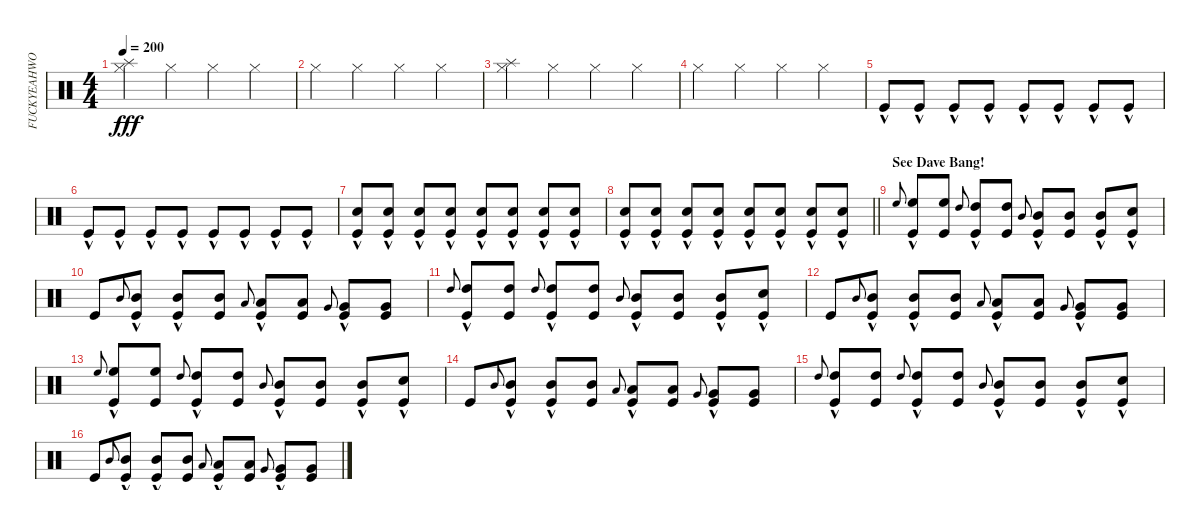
\track ("FUCKYEAHWOOTDAVEMACKINTOSH!(Percussion)" "FUCKYEAHWO") {instrument percussion}
\staff {score}
\articulation defaults
\ts (4 4)
\tempo 200
\clef neutral
\ks c
("Splash (hit)" "Hi-Hat (closed)").4{dy fff} "Hi-Hat (closed)".4 "Hi-Hat (closed)".4 "Hi-Hat (closed)".4 |
"Hi-Hat (closed)".4 "Hi-Hat (closed)".4 "Hi-Hat (closed)".4 "Hi-Hat (closed)".4 |
("Splash (hit)" "Hi-Hat (closed)").4 "Hi-Hat (closed)".4 "Hi-Hat (closed)".4 "Hi-Hat (closed)".4 |
"Hi-Hat (closed)".4 "Hi-Hat (closed)".4 "Hi-Hat (closed)".4 "Hi-Hat (closed)".4 |
"Kick (hit)"{hac}.8 "Kick (hit)"{hac}.8 "Kick (hit)"{hac}.8 "Kick (hit)"{hac}.8 "Kick (hit)"{hac}.8 "Kick (hit)"{hac}.8 "Kick (hit)"{hac}.8 "Kick (hit)"{hac}.8 |
"Kick (hit)"{hac}.8 "Kick (hit)"{hac}.8 "Kick (hit)"{hac}.8 "Kick (hit)"{hac}.8 "Kick (hit)"{hac}.8 "Kick (hit)"{hac}.8 "Kick (hit)"{hac}.8 "Kick (hit)"{hac}.8 |
("Snare (hit) 2"{hac} "Kick (hit)"{hac}).8 ("Snare (hit) 2"{hac} "Kick (hit)"{hac}).8 ("Snare (hit) 2"{hac} "Kick (hit)"{hac}).8 ("Snare (hit) 2"{hac} "Kick (hit)"{hac}).8 ("Snare (hit) 2"{hac} "Kick (hit)"{hac}).8 ("Snare (hit) 2"{hac} "Kick (hit)"{hac}).8 ("Snare (hit) 2"{hac} "Kick (hit)"{hac}).8 ("Snare (hit) 2"{hac} "Kick (hit)"{hac}).8 |
\barLineRight lightlight
("Snare (hit) 2"{hac} "Kick (hit)"{hac}).8 ("Snare (hit) 2"{hac} "Kick (hit)"{hac}).8 ("Snare (hit) 2"{hac} "Kick (hit)"{hac}).8 ("Snare (hit) 2"{hac} "Kick (hit)"{hac}).8 ("Snare (hit) 2"{hac} "Kick (hit)"{hac}).8 ("Snare (hit) 2"{hac} "Kick (hit)"{hac}).8 ("Snare (hit) 2"{hac} "Kick (hit)"{hac}).8 ("Snare (hit) 2"{hac} "Kick (hit)"{hac}).8 |
\section ("" "See Dave Bang!")
"High Floor Tom (hit)".8{gr onbeat} ("High Floor Tom (hit)"{hac} "Kick (hit)").8 ("High Floor Tom (hit)" "Kick (hit)").8 "High Tom (hit)".8{gr onbeat} ("High Tom (hit)"{hac} "Kick (hit)").8 ("High Tom (hit)" "Kick (hit)").8 "Mid Tom (hit)".8{gr onbeat} ("Mid Tom (hit)"{hac} "Kick (hit)").8 ("Mid Tom (hit)" "Kick (hit)").8 ("Mid Tom (hit)"{hac} "Kick (hit)").8 ("Snare (hit) 2"{hac} "Kick (hit)").8 |
"Kick (hit)".8 "Mid Tom (hit)".8{gr onbeat} ("Mid Tom (hit)"{hac} "Kick (hit)").8 ("Mid Tom (hit)"{hac} "Kick (hit)").8 ("Mid Tom (hit)" "Kick (hit)").8 "Low Tom (hit)".8{gr onbeat} ("Low Tom (hit)"{hac} "Kick (hit)").8 ("Low Tom (hit)" "Kick (hit)").8 "Very Low Tom (hit)".8{gr onbeat} ("Very Low Tom (hit)"{hac} "Kick (hit)").8 ("Very Low Tom (hit)" "Kick (hit)").8 |
"High Tom (hit)".8{gr onbeat} ("Kick (hit)" "High Tom (hit)"{hac}).8 ("Kick (hit)" "High Tom (hit)").8 "High Tom (hit)".8{gr onbeat} ("High Tom (hit)"{hac} "Kick (hit)").8 ("High Tom (hit)" "Kick (hit)").8 "Mid Tom (hit)".8{gr onbeat} ("Mid Tom (hit)"{hac} "Kick (hit)").8 ("Mid Tom (hit)" "Kick (hit)").8 ("Mid Tom (hit)"{hac} "Kick (hit)").8 ("Snare (hit) 2"{hac} "Kick (hit)").8 |
"Kick (hit)".8 "Mid Tom (hit)".8{gr onbeat} ("Mid Tom (hit)"{hac} "Kick (hit)").8 ("Mid Tom (hit)"{hac} "Kick (hit)").8 ("Mid Tom (hit)" "Kick (hit)").8 "Low Tom (hit)".8{gr onbeat} ("Low Tom (hit)"{hac} "Kick (hit)").8 ("Low Tom (hit)" "Kick (hit)").8 "Very Low Tom (hit)".8{gr onbeat} ("Very Low Tom (hit)"{hac} "Kick (hit)").8 ("Very Low Tom (hit)" "Kick (hit)").8 |
"High Floor Tom (hit)".8{gr onbeat} ("High Floor Tom (hit)"{hac} "Kick (hit)").8 ("High Floor Tom (hit)" "Kick (hit)").8 "High Tom (hit)".8{gr onbeat} ("High Tom (hit)"{hac} "Kick (hit)").8 ("High Tom (hit)" "Kick (hit)").8 "Mid Tom (hit)".8{gr onbeat} ("Mid Tom (hit)"{hac} "Kick (hit)").8 ("Mid Tom (hit)" "Kick (hit)").8 ("Mid Tom (hit)"{hac} "Kick (hit)").8 ("Snare (hit) 2"{hac} "Kick (hit)").8 |
"Kick (hit)".8 "Mid Tom (hit)".8{gr onbeat} ("Mid Tom (hit)"{hac} "Kick (hit)").8 ("Mid Tom (hit)"{hac} "Kick (hit)").8 ("Mid Tom (hit)" "Kick (hit)").8 "Low Tom (hit)".8{gr onbeat} ("Low Tom (hit)"{hac} "Kick (hit)").8 ("Low Tom (hit)" "Kick (hit)").8 "Very Low Tom (hit)".8{gr onbeat} ("Very Low Tom (hit)"{hac} "Kick (hit)").8 ("Very Low Tom (hit)" "Kick (hit)").8 |
"High Tom (hit)".8{gr onbeat} ("Kick (hit)" "High Tom (hit)"{hac}).8 ("Kick (hit)" "High Tom (hit)").8 "High Tom (hit)".8{gr onbeat} ("High Tom (hit)"{hac} "Kick (hit)").8 ("High Tom (hit)" "Kick (hit)").8 "Mid Tom (hit)".8{gr onbeat} ("Mid Tom (hit)"{hac} "Kick (hit)").8 ("Mid Tom (hit)" "Kick (hit)").8 ("Mid Tom (hit)"{hac} "Kick (hit)").8 ("Snare (hit) 2"{hac} "Kick (hit)").8 |
"Kick (hit)".8 "Mid Tom (hit)".8{gr onbeat} ("Mid Tom (hit)"{hac} "Kick (hit)").8 ("Mid Tom (hit)"{hac} "Kick (hit)").8 ("Mid Tom (hit)" "Kick (hit)").8 "Low Tom (hit)".8{gr onbeat} ("Low Tom (hit)"{hac} "Kick (hit)").8 ("Low Tom (hit)" "Kick (hit)").8 "Very Low Tom (hit)".8{gr onbeat} ("Very Low Tom (hit)"{hac} "Kick (hit)").8 ("Very Low Tom (hit)" "Kick (hit)").8
